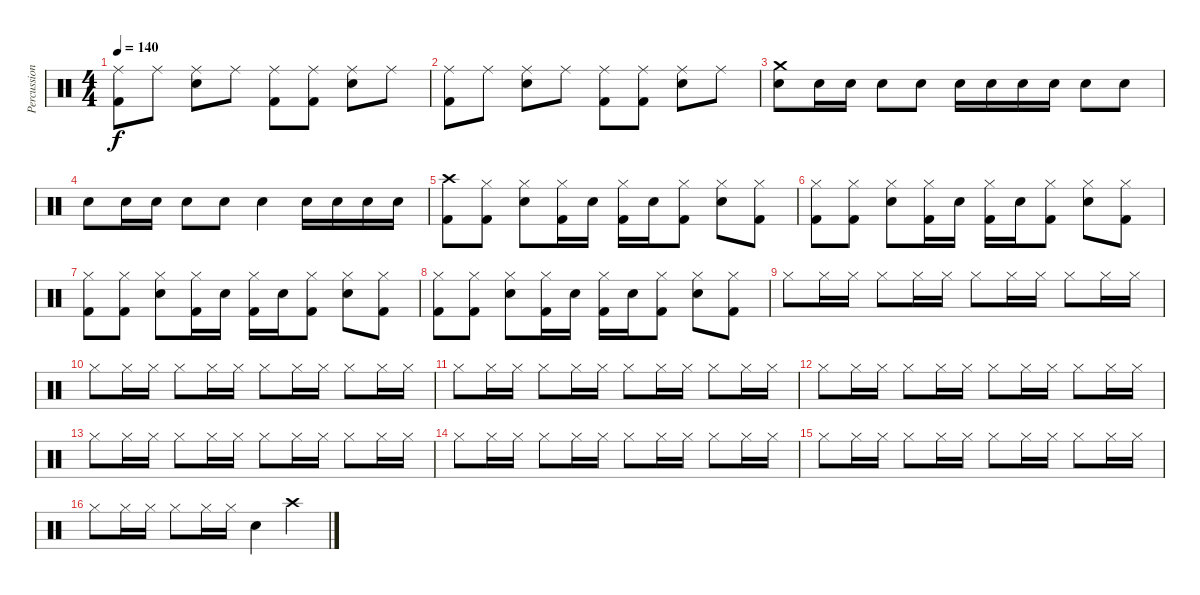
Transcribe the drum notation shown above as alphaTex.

\track ("Percussion" "Percussion") {instrument percussion}
\staff {score}
\articulation defaults
\ts (4 4)
\tempo 140
\clef neutral
\ks c
("Ride (middle)" "Kick (hit) 2").8{dy f} "Ride (middle)".8 ("Ride (middle)" "Snare (hit) 2").8 "Ride (middle)".8 ("Ride (middle)" "Kick (hit) 2").8 ("Ride (middle)" "Kick (hit) 2").8 ("Ride (middle)" "Snare (hit) 2").8 "Ride (middle)".8 |
("Ride (middle)" "Kick (hit) 2").8 "Ride (middle)".8 ("Ride (middle)" "Snare (hit) 2").8 "Ride (middle)".8 ("Ride (middle)" "Kick (hit) 2").8 ("Ride (middle)" "Kick (hit) 2").8 ("Ride (middle)" "Snare (hit) 2").8 "Ride (middle)".8 |
("Crash medium (hit)" "Snare (hit) 2").8 "Snare (hit) 2".16 "Snare (hit) 2".16 "Snare (hit) 2".8 "Snare (hit) 2".8 "Snare (hit) 2".16 "Snare (hit) 2".16 "Snare (hit) 2".16 "Snare (hit) 2".16 "Snare (hit) 2".8 "Snare (hit) 2".8 |
"Snare (hit) 2".8 "Snare (hit) 2".16 "Snare (hit) 2".16 "Snare (hit) 2".8 "Snare (hit) 2".8 "Snare (hit) 2".4 "Snare (hit) 2".16 "Snare (hit) 2".16 "Snare (hit) 2".16 "Snare (hit) 2".16 |
("Crash high (hit)" "Kick (hit) 2").8 ("Hi-Hat (closed)" "Kick (hit) 2").8 ("Hi-Hat (closed)" "Snare (hit) 2").8 ("Hi-Hat (closed)" "Kick (hit) 2").16 "Snare (hit) 2".16 ("Hi-Hat (closed)" "Kick (hit) 2").16 "Snare (hit) 2".16 ("Hi-Hat (closed)" "Kick (hit) 2").8 ("Hi-Hat (closed)" "Snare (hit) 2").8 ("Hi-Hat (closed)" "Kick (hit) 2").8 |
("Hi-Hat (closed)" "Kick (hit) 2").8 ("Hi-Hat (closed)" "Kick (hit) 2").8 ("Hi-Hat (closed)" "Snare (hit) 2").8 ("Hi-Hat (closed)" "Kick (hit) 2").16 "Snare (hit) 2".16 ("Hi-Hat (closed)" "Kick (hit) 2").16 "Snare (hit) 2".16 ("Hi-Hat (closed)" "Kick (hit) 2").8 ("Hi-Hat (closed)" "Snare (hit) 2").8 ("Hi-Hat (closed)" "Kick (hit) 2").8 |
("Hi-Hat (closed)" "Kick (hit) 2").8 ("Hi-Hat (closed)" "Kick (hit) 2").8 ("Hi-Hat (closed)" "Snare (hit) 2").8 ("Hi-Hat (closed)" "Kick (hit) 2").16 "Snare (hit) 2".16 ("Hi-Hat (closed)" "Kick (hit) 2").16 "Snare (hit) 2".16 ("Hi-Hat (closed)" "Kick (hit) 2").8 ("Hi-Hat (closed)" "Snare (hit) 2").8 ("Hi-Hat (closed)" "Kick (hit) 2").8 |
("Hi-Hat (closed)" "Kick (hit) 2").8 ("Hi-Hat (closed)" "Kick (hit) 2").8 ("Hi-Hat (closed)" "Snare (hit) 2").8 ("Hi-Hat (closed)" "Kick (hit) 2").16 "Snare (hit) 2".16 ("Hi-Hat (closed)" "Kick (hit) 2").16 "Snare (hit) 2".16 ("Hi-Hat (closed)" "Kick (hit) 2").8 ("Hi-Hat (closed)" "Snare (hit) 2").8 ("Hi-Hat (closed)" "Kick (hit) 2").8 |
"Hi-Hat (closed)".8 "Hi-Hat (closed)".16 "Hi-Hat (closed)".16 "Hi-Hat (closed)".8 "Hi-Hat (closed)".16 "Hi-Hat (closed)".16 "Hi-Hat (closed)".8 "Hi-Hat (closed)".16 "Hi-Hat (closed)".16 "Hi-Hat (closed)".8 "Hi-Hat (closed)".16 "Hi-Hat (closed)".16 |
"Hi-Hat (closed)".8 "Hi-Hat (closed)".16 "Hi-Hat (closed)".16 "Hi-Hat (closed)".8 "Hi-Hat (closed)".16 "Hi-Hat (closed)".16 "Hi-Hat (closed)".8 "Hi-Hat (closed)".16 "Hi-Hat (closed)".16 "Hi-Hat (closed)".8 "Hi-Hat (closed)".16 "Hi-Hat (closed)".16 |
"Hi-Hat (closed)".8 "Hi-Hat (closed)".16 "Hi-Hat (closed)".16 "Hi-Hat (closed)".8 "Hi-Hat (closed)".16 "Hi-Hat (closed)".16 "Hi-Hat (closed)".8 "Hi-Hat (closed)".16 "Hi-Hat (closed)".16 "Hi-Hat (closed)".8 "Hi-Hat (closed)".16 "Hi-Hat (closed)".16 |
"Hi-Hat (closed)".8 "Hi-Hat (closed)".16 "Hi-Hat (closed)".16 "Hi-Hat (closed)".8 "Hi-Hat (closed)".16 "Hi-Hat (closed)".16 "Hi-Hat (closed)".8 "Hi-Hat (closed)".16 "Hi-Hat (closed)".16 "Hi-Hat (closed)".8 "Hi-Hat (closed)".16 "Hi-Hat (closed)".16 |
"Hi-Hat (closed)".8 "Hi-Hat (closed)".16 "Hi-Hat (closed)".16 "Hi-Hat (closed)".8 "Hi-Hat (closed)".16 "Hi-Hat (closed)".16 "Hi-Hat (closed)".8 "Hi-Hat (closed)".16 "Hi-Hat (closed)".16 "Hi-Hat (closed)".8 "Hi-Hat (closed)".16 "Hi-Hat (closed)".16 |
"Hi-Hat (closed)".8 "Hi-Hat (closed)".16 "Hi-Hat (closed)".16 "Hi-Hat (closed)".8 "Hi-Hat (closed)".16 "Hi-Hat (closed)".16 "Hi-Hat (closed)".8 "Hi-Hat (closed)".16 "Hi-Hat (closed)".16 "Hi-Hat (closed)".8 "Hi-Hat (closed)".16 "Hi-Hat (closed)".16 |
"Hi-Hat (closed)".8 "Hi-Hat (closed)".16 "Hi-Hat (closed)".16 "Hi-Hat (closed)".8 "Hi-Hat (closed)".16 "Hi-Hat (closed)".16 "Hi-Hat (closed)".8 "Hi-Hat (closed)".16 "Hi-Hat (closed)".16 "Hi-Hat (closed)".8 "Hi-Hat (closed)".16 "Hi-Hat (closed)".16 |
"Hi-Hat (closed)".8 "Hi-Hat (closed)".16 "Hi-Hat (closed)".16 "Hi-Hat (closed)".8 "Hi-Hat (closed)".16 "Hi-Hat (closed)".16 "Snare (hit) 2".4 "Crash high (hit)".4
